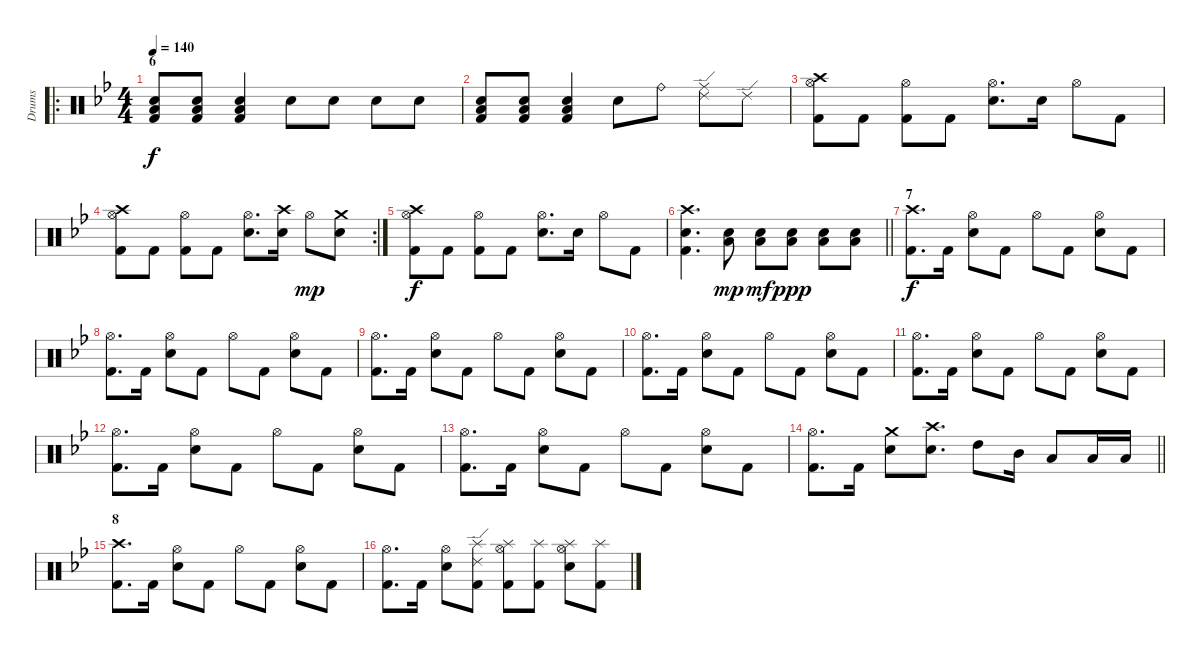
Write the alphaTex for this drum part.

\track ("Drums" "Drums") {instrument percussion}
\staff {score}
\articulation defaults
\ro
\ts (4 4)
\section ("" "6")
\tempo 140
\clef neutral
\ks bb
("Electric Snare (hit)" "Low Floor Tom (hit)" "Kick (hit) 2").8{dy f} ("Electric Snare (hit)" "Low Floor Tom (hit)" "Kick (hit) 2").8 ("Electric Snare (hit)" "Low Floor Tom (hit)" "Kick (hit) 2").4 "Electric Snare (hit)".8 "Electric Snare (hit)".8 "Electric Snare (hit)".8 "Electric Snare (hit)".8 |
("Electric Snare (hit)" "Low Floor Tom (hit)" "Kick (hit) 2").8 ("Electric Snare (hit)" "Low Floor Tom (hit)" "Kick (hit) 2").8 ("Electric Snare (hit)" "Low Floor Tom (hit)" "Kick (hit) 2").4 "Electric Snare (hit)".8 "Ride (bell)".8 ("Ride (edge) 2" "Ride (middle)").8 "Ride (edge) 2".8 |
("Hi-Hat (open)" "Kick (hit) 2" "Crash high (hit)").8 "Kick (hit) 2".8 ("Hi-Hat (open)" "Kick (hit) 2").8 "Kick (hit) 2".8 ("Hi-Hat (open)" "Electric Snare (hit)").8{d} "Electric Snare (hit)".16 "Hi-Hat (open)".8 "Kick (hit) 2".8 |
\rc 2
("Hi-Hat (open)" "Kick (hit) 2" "Crash high (hit)").8 "Kick (hit) 2".8 ("Hi-Hat (open)" "Kick (hit) 2").8 "Kick (hit) 2".8 ("Hi-Hat (open)" "Electric Snare (hit)").8{d} ("Electric Snare (hit)" "Crash high (hit)").16 "Hi-Hat (open)".8{dy mp} ("Crash medium (hit)" "Electric Snare (hit)").8 |
("Hi-Hat (open)" "Kick (hit) 2" "Crash high (hit)").8{dy f} "Kick (hit) 2".8 ("Hi-Hat (open)" "Kick (hit) 2").8 "Kick (hit) 2".8 ("Hi-Hat (open)" "Electric Snare (hit)").8{d} "Electric Snare (hit)".16 "Hi-Hat (open)".8 "Kick (hit) 2".8 |
\barLineRight lightlight
("Crash high (hit)" "Kick (hit) 2" "Electric Snare (hit)").4{d} ("Low Floor Tom (hit)" "Electric Snare (hit)").8{dy mp} ("Low Floor Tom (hit)" "Electric Snare (hit)").8{dy mf} ("Low Floor Tom (hit)" "Electric Snare (hit)").8{dy ppp} ("Low Floor Tom (hit)" "Electric Snare (hit)").8 ("Low Floor Tom (hit)" "Electric Snare (hit)").8 |
\section ("" "7")
("Crash high (hit)" "Kick (hit) 2").8{d dy f} "Kick (hit) 2".16 ("Electric Snare (hit)" "Hi-Hat (open)").8 "Kick (hit) 2".8 "Hi-Hat (open)".8 "Kick (hit) 2".8 ("Hi-Hat (open)" "Electric Snare (hit)").8 "Kick (hit) 2".8 |
("Hi-Hat (open)" "Kick (hit) 2").8{d} "Kick (hit) 2".16 ("Electric Snare (hit)" "Hi-Hat (open)").8 "Kick (hit) 2".8 "Hi-Hat (open)".8 "Kick (hit) 2".8 ("Hi-Hat (open)" "Electric Snare (hit)").8 "Kick (hit) 2".8 |
("Hi-Hat (open)" "Kick (hit) 2").8{d} "Kick (hit) 2".16 ("Electric Snare (hit)" "Hi-Hat (open)").8 "Kick (hit) 2".8 "Hi-Hat (open)".8 "Kick (hit) 2".8 ("Hi-Hat (open)" "Electric Snare (hit)").8 "Kick (hit) 2".8 |
("Hi-Hat (open)" "Kick (hit) 2").8{d} "Kick (hit) 2".16 ("Electric Snare (hit)" "Hi-Hat (open)").8 "Kick (hit) 2".8 "Hi-Hat (open)".8 "Kick (hit) 2".8 ("Hi-Hat (open)" "Electric Snare (hit)").8 "Kick (hit) 2".8 |
("Hi-Hat (open)" "Kick (hit) 2").8{d} "Kick (hit) 2".16 ("Electric Snare (hit)" "Hi-Hat (open)").8 "Kick (hit) 2".8 "Hi-Hat (open)".8 "Kick (hit) 2".8 ("Hi-Hat (open)" "Electric Snare (hit)").8 "Kick (hit) 2".8 |
("Hi-Hat (open)" "Kick (hit) 2").8{d} "Kick (hit) 2".16 ("Electric Snare (hit)" "Hi-Hat (open)").8 "Kick (hit) 2".8 "Hi-Hat (open)".8 "Kick (hit) 2".8 ("Hi-Hat (open)" "Electric Snare (hit)").8 "Kick (hit) 2".8 |
("Hi-Hat (open)" "Kick (hit) 2").8{d} "Kick (hit) 2".16 ("Electric Snare (hit)" "Hi-Hat (open)").8 "Kick (hit) 2".8 "Hi-Hat (open)".8 "Kick (hit) 2".8 ("Hi-Hat (open)" "Electric Snare (hit)").8 "Kick (hit) 2".8 |
\barLineRight lightlight
("Hi-Hat (open)" "Kick (hit) 2").8{d} "Kick (hit) 2".16 ("Electric Snare (hit)" "Crash medium (hit)").8 ("Electric Snare (hit)" "Crash high (hit)").8{d} "High Tom (hit)".8 "Mid Tom (hit)".16 "Low Tom (hit)".8 "Low Floor Tom (hit)".16 "Low Floor Tom (hit)".16 |
\section ("" "8")
("Crash high (hit)" "Kick (hit) 2").8{d} "Kick (hit) 2".16 ("Electric Snare (hit)" "Hi-Hat (open)").8 "Kick (hit) 2".8 "Hi-Hat (open)".8 "Kick (hit) 2".8 ("Hi-Hat (open)" "Electric Snare (hit)").8 "Kick (hit) 2".8 |
("Hi-Hat (open)" "Kick (hit) 2").8{d} "Kick (hit) 2".16 ("Electric Snare (hit)" "Hi-Hat (open)").8 ("Kick (hit) 2" "Splash (hit)" "Ride (edge) 2").8 ("Hi-Hat (open)" "Splash (hit)" "Kick (hit) 2").8 ("Kick (hit) 2" "Splash (hit)").8 ("Hi-Hat (open)" "Electric Snare (hit)" "Splash (hit)").8 ("Kick (hit) 2" "Splash (hit)").8
